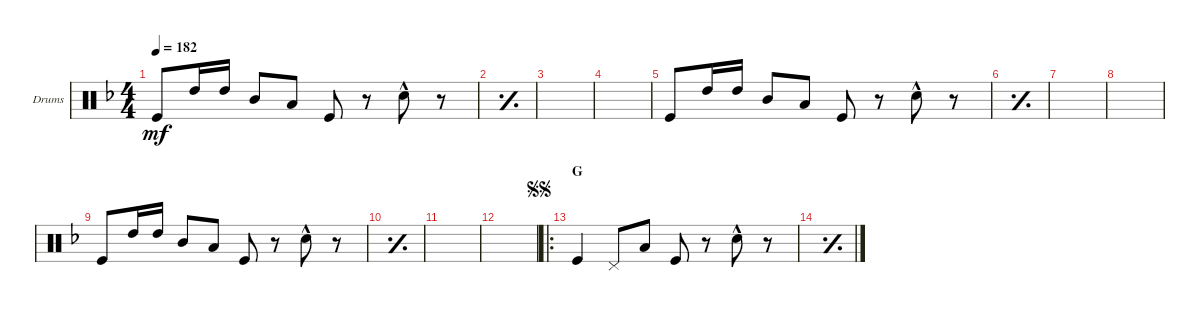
\defaultSystemsLayout 4
\bracketExtendMode groupsimilarinstruments
\firstSystemTrackNameOrientation horizontal
\otherSystemsTrackNameOrientation horizontal
\track ("Drumkit" "Drums") {instrument percussion}
\staff {score}
\articulation defaults
\ts (4 4)
\tempo 182
\clef neutral
\ks f "Kick (hit)".8{dy mf} "High Tom (hit)".16 "High Tom (hit)".16 "Mid Tom (hit)".8 "Low Tom (hit)".8 "Kick (hit)".8
r.8 "Snare (hit) 2"{hac}.8 r.8 |
\simile simple
|
|
|
\simile none "Kick (hit)".8 "High Tom (hit)".16 "High Tom (hit)".16 "Mid Tom (hit)".8 "Low Tom (hit)".8 "Kick (hit)".8
r.8 "Snare (hit) 2"{hac}.8 r.8 |
\simile simple
|
|
|
\simile none "Kick (hit)".8 "High Tom (hit)".16 "High Tom (hit)".16 "Mid Tom (hit)".8 "Low Tom (hit)".8 "Kick (hit)".8
r.8 "Snare (hit) 2"{hac}.8 r.8 |
\simile simple
|
|
|
\ro
\section ("" "G")
\jump segnosegno
\simile none "Kick (hit)".4 "Pedal Hi-Hat (hit)".8 "Low Tom (hit)".8 "Kick (hit)".8
r.8 "Snare (hit) 2"{hac}.8 r.8 |
\simile simple
